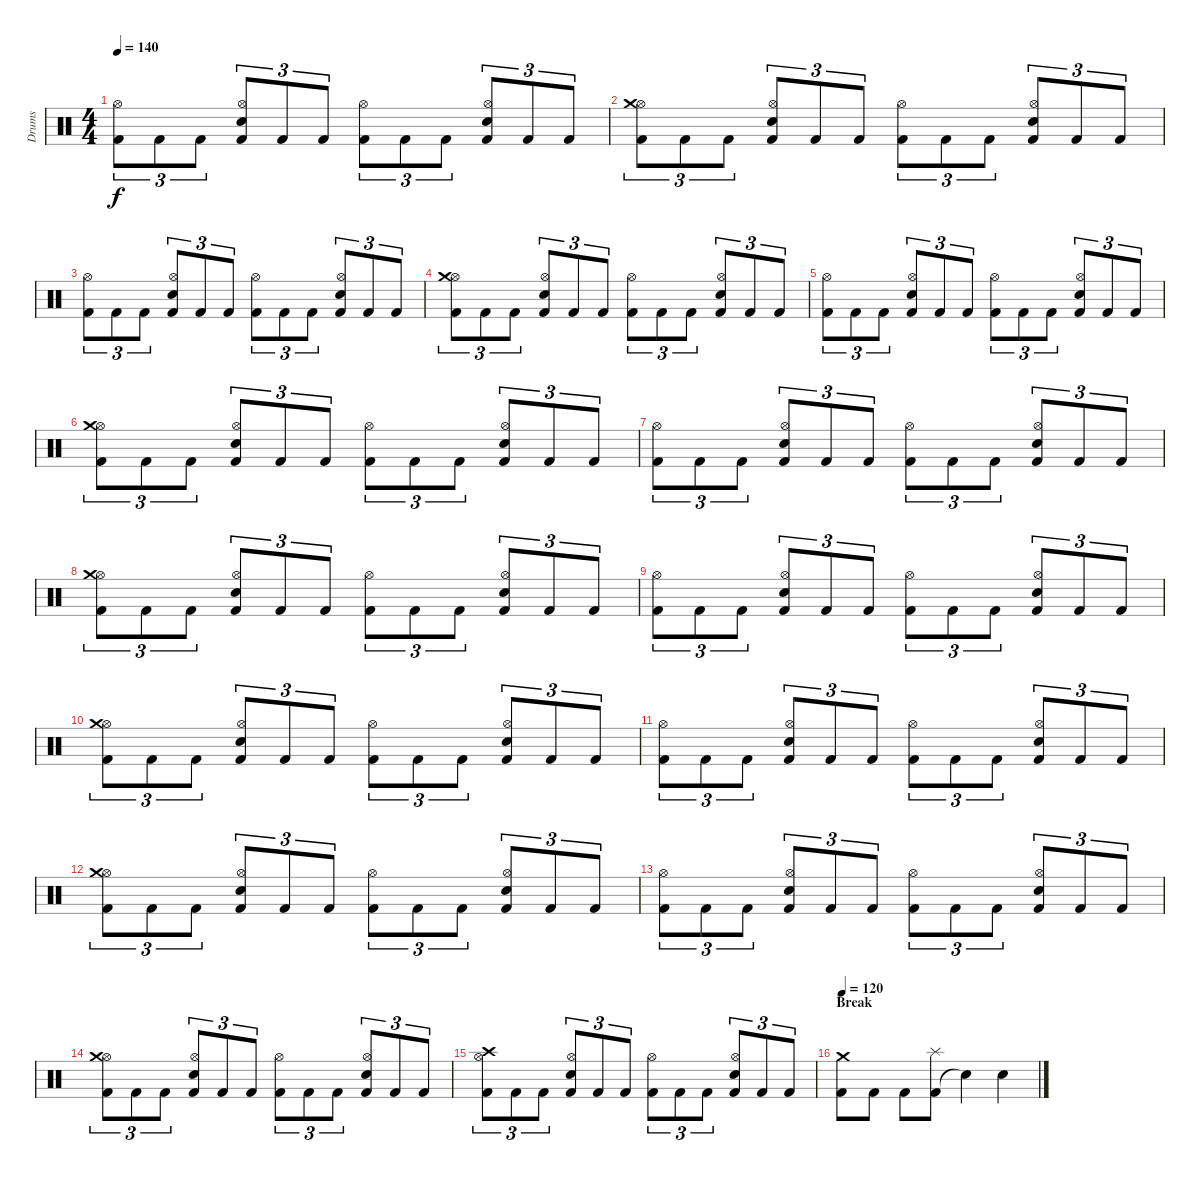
\track ("Drums" "Drums") {instrument percussion}
\staff {score}
\articulation defaults
\ts (4 4)
\tempo 140
\clef neutral
\ks c
("Kick (hit) 2" "Hi-Hat (open)").8{tu (3 2) dy f} "Kick (hit) 2".8{tu (3 2)} "Kick (hit) 2".8{tu (3 2)} ("Kick (hit) 2" "Electric Snare (hit)" "Hi-Hat (open)").8{tu (3 2)} "Kick (hit) 2".8{tu (3 2)} "Kick (hit) 2".8{tu (3 2)} ("Kick (hit) 2" "Hi-Hat (open)").8{tu (3 2)} "Kick (hit) 2".8{tu (3 2)} "Kick (hit) 2".8{tu (3 2)} ("Kick (hit) 2" "Electric Snare (hit)" "Hi-Hat (open)").8{tu (3 2)} "Kick (hit) 2".8{tu (3 2)} "Kick (hit) 2".8{tu (3 2)} |
("Kick (hit) 2" "Hi-Hat (open)" "Crash medium (hit)").8{tu (3 2)} "Kick (hit) 2".8{tu (3 2)} "Kick (hit) 2".8{tu (3 2)} ("Kick (hit) 2" "Electric Snare (hit)" "Hi-Hat (open)").8{tu (3 2)} "Kick (hit) 2".8{tu (3 2)} "Kick (hit) 2".8{tu (3 2)} ("Kick (hit) 2" "Hi-Hat (open)").8{tu (3 2)} "Kick (hit) 2".8{tu (3 2)} "Kick (hit) 2".8{tu (3 2)} ("Kick (hit) 2" "Electric Snare (hit)" "Hi-Hat (open)").8{tu (3 2)} "Kick (hit) 2".8{tu (3 2)} "Kick (hit) 2".8{tu (3 2)} |
("Kick (hit) 2" "Hi-Hat (open)").8{tu (3 2)} "Kick (hit) 2".8{tu (3 2)} "Kick (hit) 2".8{tu (3 2)} ("Kick (hit) 2" "Electric Snare (hit)" "Hi-Hat (open)").8{tu (3 2)} "Kick (hit) 2".8{tu (3 2)} "Kick (hit) 2".8{tu (3 2)} ("Kick (hit) 2" "Hi-Hat (open)").8{tu (3 2)} "Kick (hit) 2".8{tu (3 2)} "Kick (hit) 2".8{tu (3 2)} ("Kick (hit) 2" "Electric Snare (hit)" "Hi-Hat (open)").8{tu (3 2)} "Kick (hit) 2".8{tu (3 2)} "Kick (hit) 2".8{tu (3 2)} |
("Kick (hit) 2" "Hi-Hat (open)" "Crash medium (hit)").8{tu (3 2)} "Kick (hit) 2".8{tu (3 2)} "Kick (hit) 2".8{tu (3 2)} ("Kick (hit) 2" "Electric Snare (hit)" "Hi-Hat (open)").8{tu (3 2)} "Kick (hit) 2".8{tu (3 2)} "Kick (hit) 2".8{tu (3 2)} ("Kick (hit) 2" "Hi-Hat (open)").8{tu (3 2)} "Kick (hit) 2".8{tu (3 2)} "Kick (hit) 2".8{tu (3 2)} ("Kick (hit) 2" "Electric Snare (hit)" "Hi-Hat (open)").8{tu (3 2)} "Kick (hit) 2".8{tu (3 2)} "Kick (hit) 2".8{tu (3 2)} |
("Kick (hit) 2" "Hi-Hat (open)").8{tu (3 2)} "Kick (hit) 2".8{tu (3 2)} "Kick (hit) 2".8{tu (3 2)} ("Kick (hit) 2" "Electric Snare (hit)" "Hi-Hat (open)").8{tu (3 2)} "Kick (hit) 2".8{tu (3 2)} "Kick (hit) 2".8{tu (3 2)} ("Kick (hit) 2" "Hi-Hat (open)").8{tu (3 2)} "Kick (hit) 2".8{tu (3 2)} "Kick (hit) 2".8{tu (3 2)} ("Kick (hit) 2" "Electric Snare (hit)" "Hi-Hat (open)").8{tu (3 2)} "Kick (hit) 2".8{tu (3 2)} "Kick (hit) 2".8{tu (3 2)} |
("Kick (hit) 2" "Hi-Hat (open)" "Crash medium (hit)").8{tu (3 2)} "Kick (hit) 2".8{tu (3 2)} "Kick (hit) 2".8{tu (3 2)} ("Kick (hit) 2" "Electric Snare (hit)" "Hi-Hat (open)").8{tu (3 2)} "Kick (hit) 2".8{tu (3 2)} "Kick (hit) 2".8{tu (3 2)} ("Kick (hit) 2" "Hi-Hat (open)").8{tu (3 2)} "Kick (hit) 2".8{tu (3 2)} "Kick (hit) 2".8{tu (3 2)} ("Kick (hit) 2" "Electric Snare (hit)" "Hi-Hat (open)").8{tu (3 2)} "Kick (hit) 2".8{tu (3 2)} "Kick (hit) 2".8{tu (3 2)} |
("Kick (hit) 2" "Hi-Hat (open)").8{tu (3 2)} "Kick (hit) 2".8{tu (3 2)} "Kick (hit) 2".8{tu (3 2)} ("Kick (hit) 2" "Electric Snare (hit)" "Hi-Hat (open)").8{tu (3 2)} "Kick (hit) 2".8{tu (3 2)} "Kick (hit) 2".8{tu (3 2)} ("Kick (hit) 2" "Hi-Hat (open)").8{tu (3 2)} "Kick (hit) 2".8{tu (3 2)} "Kick (hit) 2".8{tu (3 2)} ("Kick (hit) 2" "Electric Snare (hit)" "Hi-Hat (open)").8{tu (3 2)} "Kick (hit) 2".8{tu (3 2)} "Kick (hit) 2".8{tu (3 2)} |
("Kick (hit) 2" "Hi-Hat (open)" "Crash medium (hit)").8{tu (3 2)} "Kick (hit) 2".8{tu (3 2)} "Kick (hit) 2".8{tu (3 2)} ("Kick (hit) 2" "Electric Snare (hit)" "Hi-Hat (open)").8{tu (3 2)} "Kick (hit) 2".8{tu (3 2)} "Kick (hit) 2".8{tu (3 2)} ("Kick (hit) 2" "Hi-Hat (open)").8{tu (3 2)} "Kick (hit) 2".8{tu (3 2)} "Kick (hit) 2".8{tu (3 2)} ("Kick (hit) 2" "Electric Snare (hit)" "Hi-Hat (open)").8{tu (3 2)} "Kick (hit) 2".8{tu (3 2)} "Kick (hit) 2".8{tu (3 2)} |
("Kick (hit) 2" "Hi-Hat (open)").8{tu (3 2)} "Kick (hit) 2".8{tu (3 2)} "Kick (hit) 2".8{tu (3 2)} ("Kick (hit) 2" "Electric Snare (hit)" "Hi-Hat (open)").8{tu (3 2)} "Kick (hit) 2".8{tu (3 2)} "Kick (hit) 2".8{tu (3 2)} ("Kick (hit) 2" "Hi-Hat (open)").8{tu (3 2)} "Kick (hit) 2".8{tu (3 2)} "Kick (hit) 2".8{tu (3 2)} ("Kick (hit) 2" "Electric Snare (hit)" "Hi-Hat (open)").8{tu (3 2)} "Kick (hit) 2".8{tu (3 2)} "Kick (hit) 2".8{tu (3 2)} |
("Kick (hit) 2" "Hi-Hat (open)" "Crash medium (hit)").8{tu (3 2)} "Kick (hit) 2".8{tu (3 2)} "Kick (hit) 2".8{tu (3 2)} ("Kick (hit) 2" "Electric Snare (hit)" "Hi-Hat (open)").8{tu (3 2)} "Kick (hit) 2".8{tu (3 2)} "Kick (hit) 2".8{tu (3 2)} ("Kick (hit) 2" "Hi-Hat (open)").8{tu (3 2)} "Kick (hit) 2".8{tu (3 2)} "Kick (hit) 2".8{tu (3 2)} ("Kick (hit) 2" "Electric Snare (hit)" "Hi-Hat (open)").8{tu (3 2)} "Kick (hit) 2".8{tu (3 2)} "Kick (hit) 2".8{tu (3 2)} |
("Kick (hit) 2" "Hi-Hat (open)").8{tu (3 2)} "Kick (hit) 2".8{tu (3 2)} "Kick (hit) 2".8{tu (3 2)} ("Kick (hit) 2" "Electric Snare (hit)" "Hi-Hat (open)").8{tu (3 2)} "Kick (hit) 2".8{tu (3 2)} "Kick (hit) 2".8{tu (3 2)} ("Kick (hit) 2" "Hi-Hat (open)").8{tu (3 2)} "Kick (hit) 2".8{tu (3 2)} "Kick (hit) 2".8{tu (3 2)} ("Kick (hit) 2" "Electric Snare (hit)" "Hi-Hat (open)").8{tu (3 2)} "Kick (hit) 2".8{tu (3 2)} "Kick (hit) 2".8{tu (3 2)} |
("Kick (hit) 2" "Hi-Hat (open)" "Crash medium (hit)").8{tu (3 2)} "Kick (hit) 2".8{tu (3 2)} "Kick (hit) 2".8{tu (3 2)} ("Kick (hit) 2" "Electric Snare (hit)" "Hi-Hat (open)").8{tu (3 2)} "Kick (hit) 2".8{tu (3 2)} "Kick (hit) 2".8{tu (3 2)} ("Kick (hit) 2" "Hi-Hat (open)").8{tu (3 2)} "Kick (hit) 2".8{tu (3 2)} "Kick (hit) 2".8{tu (3 2)} ("Kick (hit) 2" "Electric Snare (hit)" "Hi-Hat (open)").8{tu (3 2)} "Kick (hit) 2".8{tu (3 2)} "Kick (hit) 2".8{tu (3 2)} |
("Kick (hit) 2" "Hi-Hat (open)").8{tu (3 2)} "Kick (hit) 2".8{tu (3 2)} "Kick (hit) 2".8{tu (3 2)} ("Kick (hit) 2" "Electric Snare (hit)" "Hi-Hat (open)").8{tu (3 2)} "Kick (hit) 2".8{tu (3 2)} "Kick (hit) 2".8{tu (3 2)} ("Kick (hit) 2" "Hi-Hat (open)").8{tu (3 2)} "Kick (hit) 2".8{tu (3 2)} "Kick (hit) 2".8{tu (3 2)} ("Kick (hit) 2" "Electric Snare (hit)" "Hi-Hat (open)").8{tu (3 2)} "Kick (hit) 2".8{tu (3 2)} "Kick (hit) 2".8{tu (3 2)} |
("Kick (hit) 2" "Hi-Hat (open)" "Crash medium (hit)").8{tu (3 2)} "Kick (hit) 2".8{tu (3 2)} "Kick (hit) 2".8{tu (3 2)} ("Kick (hit) 2" "Electric Snare (hit)" "Hi-Hat (open)").8{tu (3 2)} "Kick (hit) 2".8{tu (3 2)} "Kick (hit) 2".8{tu (3 2)} ("Kick (hit) 2" "Hi-Hat (open)").8{tu (3 2)} "Kick (hit) 2".8{tu (3 2)} "Kick (hit) 2".8{tu (3 2)} ("Kick (hit) 2" "Electric Snare (hit)" "Hi-Hat (open)").8{tu (3 2)} "Kick (hit) 2".8{tu (3 2)} "Kick (hit) 2".8{tu (3 2)} |
("Kick (hit) 2" "Hi-Hat (open)" "Crash high (hit)").8{tu (3 2)} "Kick (hit) 2".8{tu (3 2)} "Kick (hit) 2".8{tu (3 2)} ("Kick (hit) 2" "Electric Snare (hit)" "Hi-Hat (open)").8{tu (3 2)} "Kick (hit) 2".8{tu (3 2)} "Kick (hit) 2".8{tu (3 2)} ("Kick (hit) 2" "Hi-Hat (open)").8{tu (3 2)} "Kick (hit) 2".8{tu (3 2)} "Kick (hit) 2".8{tu (3 2)} ("Kick (hit) 2" "Electric Snare (hit)" "Hi-Hat (open)").8{tu (3 2)} "Kick (hit) 2".8{tu (3 2)} "Kick (hit) 2".8{tu (3 2)} |
\section ("" "Break")
\tempo 120
("Kick (hit) 2" "Crash medium (hit)").8 "Kick (hit) 2".8 "Kick (hit) 2".8 ("Kick (hit) 2" "Splash (hit)").8 "Snare (hit)"{t}.4 "Snare (hit) 2".4
